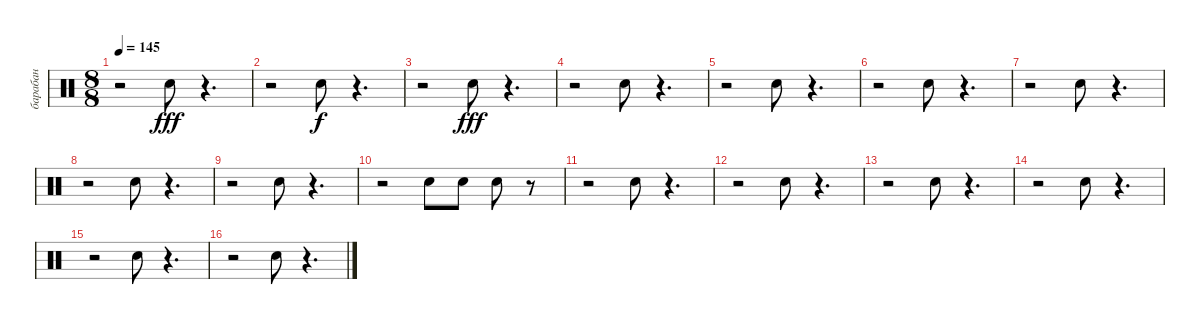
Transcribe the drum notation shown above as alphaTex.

\track ("барабан" "барабан") {instrument percussion}
\staff {score}
\articulation defaults
\ts (8 8)
\tempo 145
\clef neutral
\ks c
r.2{dy fff} "Snare (hit) 2".8 r.4{d} |
r.2 "Snare (hit) 2".8{dy f} r.4{d} |
r.2 "Snare (hit) 2".8{dy fff} r.4{d} |
r.2 "Snare (hit) 2".8 r.4{d} |
r.2 "Snare (hit) 2".8 r.4{d} |
r.2 "Snare (hit) 2".8 r.4{d} |
r.2 "Snare (hit) 2".8 r.4{d} |
r.2 "Snare (hit) 2".8 r.4{d} |
r.2 "Snare (hit) 2".8 r.4{d} |
r.2 "Snare (hit) 2".8 "Snare (hit) 2".8 "Snare (hit) 2".8 r.8 |
r.2 "Snare (hit) 2".8 r.4{d} |
r.2 "Snare (hit) 2".8 r.4{d} |
r.2 "Snare (hit) 2".8 r.4{d} |
r.2 "Snare (hit) 2".8 r.4{d} |
r.2 "Snare (hit) 2".8 r.4{d} |
r.2 "Snare (hit) 2".8 r.4{d}
